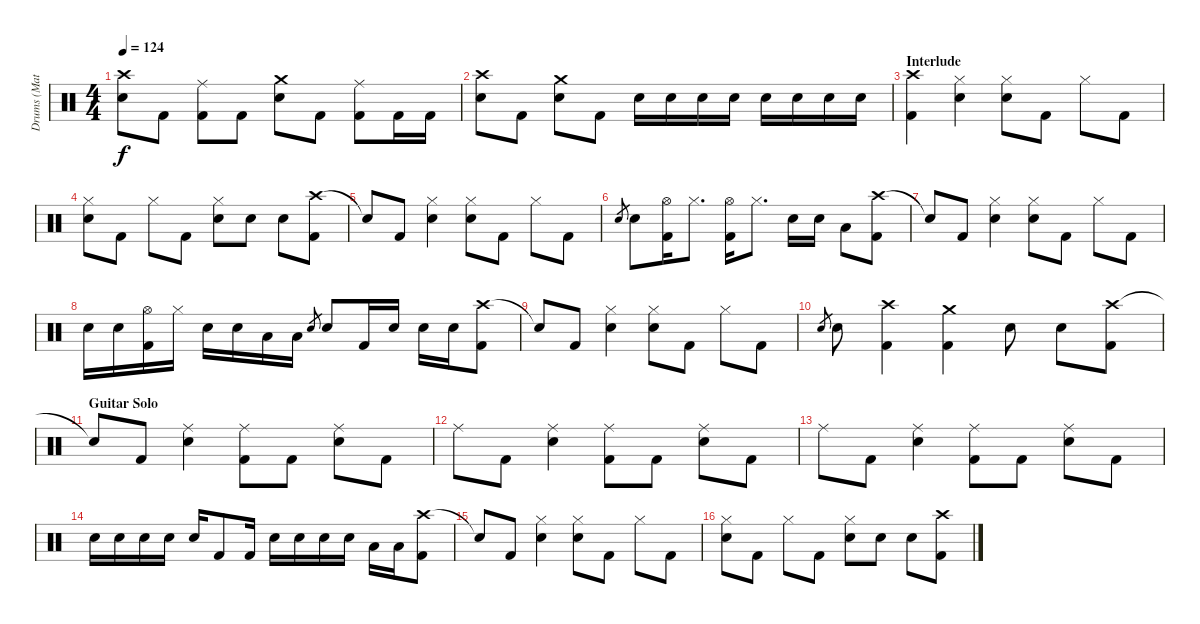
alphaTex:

\track ("Drums (Matt)" "Drums (Mat") {instrument percussion}
\staff {score}
\articulation defaults
\ts (4 4)
\tempo 124
\clef neutral
\ks c
("Crash high (hit)" "Snare (hit) 2").8{dy f} "Kick (hit) 2".8 ("Ride (middle)" "Kick (hit) 2").8 "Kick (hit) 2".8 ("Crash medium (hit)" "Snare (hit) 2").8 "Kick (hit) 2".8 ("Ride (middle)" "Kick (hit) 2").8 "Kick (hit) 2".16 "Kick (hit) 2".16 |
("Crash high (hit)" "Snare (hit) 2").8 "Kick (hit) 2".8 ("Crash medium (hit)" "Snare (hit) 2").8 "Kick (hit) 2".8 "Snare (hit) 2".16 "Snare (hit) 2".16 "Snare (hit) 2".16 "Snare (hit) 2".16 "Snare (hit) 2".16 "Snare (hit) 2".16 "Snare (hit) 2".16 "Snare (hit) 2".16 |
\section ("" "Interlude")
("Crash high (hit)" "Kick (hit) 2").4 ("Hi-Hat (closed)" "Snare (hit) 2").4 ("Hi-Hat (closed)" "Snare (hit) 2").8 "Kick (hit) 2".8 "Hi-Hat (closed)".8 "Kick (hit) 2".8 |
("Hi-Hat (closed)" "Snare (hit) 2").8 "Kick (hit) 2".8 "Hi-Hat (closed)".8 "Kick (hit) 2".8 ("Hi-Hat (closed)" "Snare (hit) 2").8 "Snare (hit) 2".8 "Snare (hit) 2".8 ("Crash high (hit)" "Kick (hit) 2").8 |
"Snare (hit)"{t}.8 "Kick (hit) 2".8 ("Hi-Hat (closed)" "Snare (hit) 2").4 ("Hi-Hat (closed)" "Snare (hit) 2").8 "Kick (hit) 2".8 "Hi-Hat (closed)".8 "Kick (hit) 2".8 |
"Snare (hit) 2".8{gr} "Snare (hit) 2".8 ("Hi-Hat (open)" "Kick (hit) 2").16 "Hi-Hat (closed)".8{d} ("Hi-Hat (open)" "Kick (hit) 2").16 "Hi-Hat (closed)".8{d} "Snare (hit) 2".16 "Snare (hit) 2".16 "Low Tom (hit)".8 ("Crash high (hit)" "Kick (hit) 2").8 |
"Snare (hit)"{t}.8 "Kick (hit) 2".8 ("Hi-Hat (closed)" "Snare (hit) 2").4 ("Hi-Hat (closed)" "Snare (hit) 2").8 "Kick (hit) 2".8 "Hi-Hat (closed)".8 "Kick (hit) 2".8 |
"Snare (hit) 2".16 "Snare (hit) 2".16 ("Hi-Hat (open)" "Kick (hit) 2").16 "Hi-Hat (closed)".16 "Snare (hit) 2".16 "Snare (hit) 2".16 "Low Tom (hit)".16 "Low Tom (hit)".16 "Snare (hit) 2".8{gr} "Snare (hit) 2".8 "Kick (hit) 2".16 "Snare (hit) 2".16 "Snare (hit) 2".16 "Snare (hit) 2".16 ("Crash high (hit)" "Kick (hit) 2").8 |
"Snare (hit)"{t}.8 "Kick (hit) 2".8 ("Hi-Hat (closed)" "Snare (hit) 2").4 ("Hi-Hat (closed)" "Snare (hit) 2").8 "Kick (hit) 2".8 "Hi-Hat (closed)".8 "Kick (hit) 2".8 |
"Snare (hit) 2".8{gr} "Snare (hit) 2".8 ("Crash high (hit)" "Kick (hit) 2").4 ("Crash medium (hit)" "Kick (hit) 2").4 "Snare (hit) 2".8 "Snare (hit) 2".8 ("Crash high (hit)" "Kick (hit) 2").8 |
\section ("" "Guitar Solo")
"Snare (hit)"{t}.8 "Kick (hit) 2".8 ("Ride (middle)" "Snare (hit) 2").4 ("Ride (middle)" "Kick (hit) 2").8 "Kick (hit) 2".8 ("Ride (middle)" "Snare (hit) 2").8 "Kick (hit) 2".8 |
"Ride (middle)".8 "Kick (hit) 2".8 ("Ride (middle)" "Snare (hit) 2").4 ("Ride (middle)" "Kick (hit) 2").8 "Kick (hit) 2".8 ("Ride (middle)" "Snare (hit) 2").8 "Kick (hit) 2".8 |
"Ride (middle)".8 "Kick (hit) 2".8 ("Ride (middle)" "Snare (hit) 2").4 ("Ride (middle)" "Kick (hit) 2").8 "Kick (hit) 2".8 ("Ride (middle)" "Snare (hit) 2").8 "Kick (hit) 2".8 |
"Snare (hit) 2".16 "Snare (hit) 2".16 "Snare (hit) 2".16 "Snare (hit) 2".16 "Snare (hit) 2".16 "Kick (hit) 2".8 "Kick (hit) 2".16 "Snare (hit) 2".16 "Snare (hit) 2".16 "Snare (hit) 2".16 "Snare (hit) 2".16 "Low Tom (hit)".16 "Low Tom (hit)".16 ("Crash high (hit)" "Kick (hit) 2").8 |
"Snare (hit)"{t}.8 "Kick (hit) 2".8 ("Hi-Hat (closed)" "Snare (hit) 2").4 ("Hi-Hat (closed)" "Snare (hit) 2").8 "Kick (hit) 2".8 "Hi-Hat (closed)".8 "Kick (hit) 2".8 |
("Hi-Hat (closed)" "Snare (hit) 2").8 "Kick (hit) 2".8 "Hi-Hat (closed)".8 "Kick (hit) 2".8 ("Hi-Hat (closed)" "Snare (hit) 2").8 "Snare (hit) 2".8 "Snare (hit) 2".8 ("Crash high (hit)" "Kick (hit) 2").8
